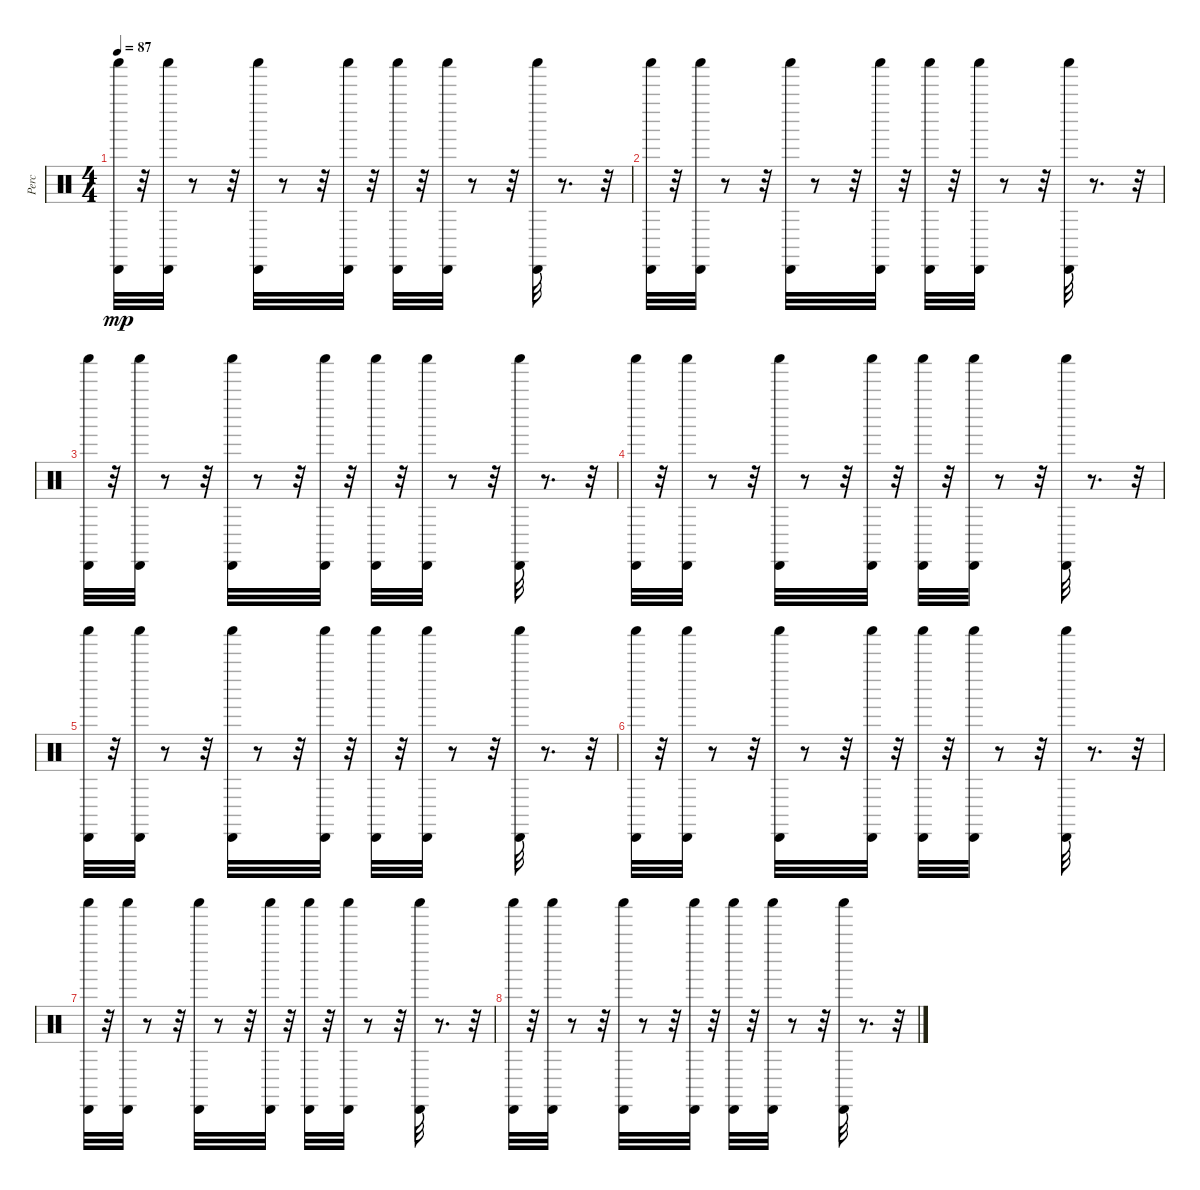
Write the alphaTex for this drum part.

\track ("Perc" "Perc") {instrument percussion}
\staff {score}
\articulation defaults
\ts (4 4)
\tempo 87
\clef neutral
\ks c
("Cabasa (hit)" "Shaker (hit)").32{dy mp} r.32 ("Shaker (hit)" "Cabasa (hit)").32 r.8 r.32 ("Cabasa (hit)" "Shaker (hit)").32 r.8 r.32 ("Cabasa (hit)" "Shaker (hit)").32 r.32 ("Shaker (hit)" "Cabasa (hit)").32 r.32 ("Shaker (hit)" "Cabasa (hit)").32 r.8 r.32 ("Shaker (hit)" "Cabasa (hit)").32 r.8{d} r.32 |
("Cabasa (hit)" "Shaker (hit)").32 r.32 ("Shaker (hit)" "Cabasa (hit)").32 r.8 r.32 ("Shaker (hit)" "Cabasa (hit)").32 r.8 r.32 ("Shaker (hit)" "Cabasa (hit)").32 r.32 ("Shaker (hit)" "Cabasa (hit)").32 r.32 ("Shaker (hit)" "Cabasa (hit)").32 r.8 r.32 ("Shaker (hit)" "Cabasa (hit)").32 r.8{d} r.32 |
("Cabasa (hit)" "Shaker (hit)").32 r.32 ("Shaker (hit)" "Cabasa (hit)").32 r.8 r.32 ("Cabasa (hit)" "Shaker (hit)").32 r.8 r.32 ("Cabasa (hit)" "Shaker (hit)").32 r.32 ("Shaker (hit)" "Cabasa (hit)").32 r.32 ("Shaker (hit)" "Cabasa (hit)").32 r.8 r.32 ("Shaker (hit)" "Cabasa (hit)").32 r.8{d} r.32 |
("Cabasa (hit)" "Shaker (hit)").32 r.32 ("Shaker (hit)" "Cabasa (hit)").32 r.8 r.32 ("Shaker (hit)" "Cabasa (hit)").32 r.8 r.32 ("Shaker (hit)" "Cabasa (hit)").32 r.32 ("Shaker (hit)" "Cabasa (hit)").32 r.32 ("Shaker (hit)" "Cabasa (hit)").32 r.8 r.32 ("Shaker (hit)" "Cabasa (hit)").32 r.8{d} r.32 |
("Cabasa (hit)" "Shaker (hit)").32 r.32 ("Shaker (hit)" "Cabasa (hit)").32 r.8 r.32 ("Cabasa (hit)" "Shaker (hit)").32 r.8 r.32 ("Cabasa (hit)" "Shaker (hit)").32 r.32 ("Shaker (hit)" "Cabasa (hit)").32 r.32 ("Shaker (hit)" "Cabasa (hit)").32 r.8 r.32 ("Shaker (hit)" "Cabasa (hit)").32 r.8{d} r.32 |
("Cabasa (hit)" "Shaker (hit)").32 r.32 ("Shaker (hit)" "Cabasa (hit)").32 r.8 r.32 ("Shaker (hit)" "Cabasa (hit)").32 r.8 r.32 ("Shaker (hit)" "Cabasa (hit)").32 r.32 ("Shaker (hit)" "Cabasa (hit)").32 r.32 ("Shaker (hit)" "Cabasa (hit)").32 r.8 r.32 ("Shaker (hit)" "Cabasa (hit)").32 r.8{d} r.32 |
("Cabasa (hit)" "Shaker (hit)").32 r.32 ("Shaker (hit)" "Cabasa (hit)").32 r.8 r.32 ("Cabasa (hit)" "Shaker (hit)").32 r.8 r.32 ("Cabasa (hit)" "Shaker (hit)").32 r.32 ("Shaker (hit)" "Cabasa (hit)").32 r.32 ("Shaker (hit)" "Cabasa (hit)").32 r.8 r.32 ("Shaker (hit)" "Cabasa (hit)").32 r.8{d} r.32 |
("Cabasa (hit)" "Shaker (hit)").32 r.32 ("Shaker (hit)" "Cabasa (hit)").32 r.8 r.32 ("Shaker (hit)" "Cabasa (hit)").32 r.8 r.32 ("Shaker (hit)" "Cabasa (hit)").32 r.32 ("Shaker (hit)" "Cabasa (hit)").32 r.32 ("Shaker (hit)" "Cabasa (hit)").32 r.8 r.32 ("Shaker (hit)" "Cabasa (hit)").32 r.8{d} r.32
